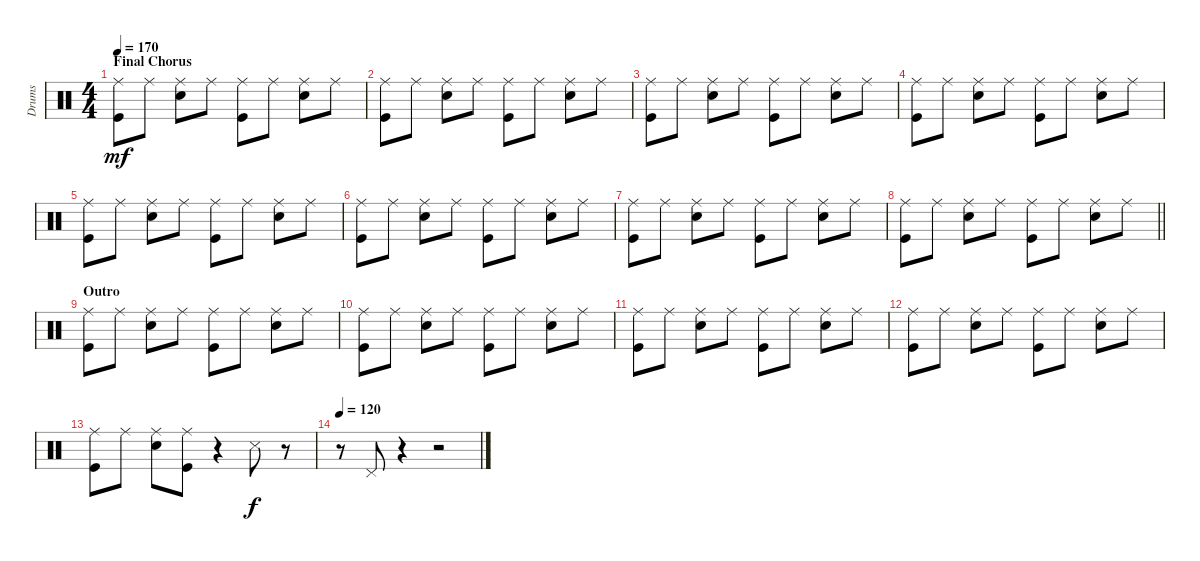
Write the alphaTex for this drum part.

\track ("Drums" "Drums") {instrument percussion}
\staff {score}
\articulation defaults
\ts (4 4)
\section ("" "Final Chorus")
\tempo 170
\clef neutral
\ks c
("Ride (middle)" "Kick (hit)").8{dy mf} "Ride (middle)".8 ("Ride (middle)" "Snare (hit) 2").8 "Ride (middle)".8 ("Ride (middle)" "Kick (hit)").8 "Ride (middle)".8 ("Ride (middle)" "Snare (hit) 2").8 "Ride (middle)".8 |
("Ride (middle)" "Kick (hit)").8 "Ride (middle)".8 ("Ride (middle)" "Snare (hit) 2").8 "Ride (middle)".8 ("Ride (middle)" "Kick (hit)").8 "Ride (middle)".8 ("Ride (middle)" "Snare (hit) 2").8 "Ride (middle)".8 |
("Ride (middle)" "Kick (hit)").8 "Ride (middle)".8 ("Ride (middle)" "Snare (hit) 2").8 "Ride (middle)".8 ("Ride (middle)" "Kick (hit)").8 "Ride (middle)".8 ("Ride (middle)" "Snare (hit) 2").8 "Ride (middle)".8 |
("Ride (middle)" "Kick (hit)").8 "Ride (middle)".8 ("Ride (middle)" "Snare (hit) 2").8 "Ride (middle)".8 ("Ride (middle)" "Kick (hit)").8 "Ride (middle)".8 ("Ride (middle)" "Snare (hit) 2").8 "Ride (middle)".8 |
("Ride (middle)" "Kick (hit)").8 "Ride (middle)".8 ("Ride (middle)" "Snare (hit) 2").8 "Ride (middle)".8 ("Ride (middle)" "Kick (hit)").8 "Ride (middle)".8 ("Ride (middle)" "Snare (hit) 2").8 "Ride (middle)".8 |
("Ride (middle)" "Kick (hit)").8 "Ride (middle)".8 ("Ride (middle)" "Snare (hit) 2").8 "Ride (middle)".8 ("Ride (middle)" "Kick (hit)").8 "Ride (middle)".8 ("Ride (middle)" "Snare (hit) 2").8 "Ride (middle)".8 |
("Ride (middle)" "Kick (hit)").8 "Ride (middle)".8 ("Ride (middle)" "Snare (hit) 2").8 "Ride (middle)".8 ("Ride (middle)" "Kick (hit)").8 "Ride (middle)".8 ("Ride (middle)" "Snare (hit) 2").8 "Ride (middle)".8 |
\barLineRight lightlight
("Ride (middle)" "Kick (hit)").8 "Ride (middle)".8 ("Ride (middle)" "Snare (hit) 2").8 "Ride (middle)".8 ("Ride (middle)" "Kick (hit)").8 "Ride (middle)".8 ("Ride (middle)" "Snare (hit) 2").8 "Ride (middle)".8 |
\section ("" "Outro")
("Ride (middle)" "Kick (hit)").8 "Ride (middle)".8 ("Ride (middle)" "Snare (hit) 2").8 "Ride (middle)".8 ("Ride (middle)" "Kick (hit)").8 "Ride (middle)".8 ("Ride (middle)" "Snare (hit) 2").8 "Ride (middle)".8 |
("Ride (middle)" "Kick (hit)").8 "Ride (middle)".8 ("Ride (middle)" "Snare (hit) 2").8 "Ride (middle)".8 ("Ride (middle)" "Kick (hit)").8 "Ride (middle)".8 ("Ride (middle)" "Snare (hit) 2").8 "Ride (middle)".8 |
("Ride (middle)" "Kick (hit)").8 "Ride (middle)".8 ("Ride (middle)" "Snare (hit) 2").8 "Ride (middle)".8 ("Ride (middle)" "Kick (hit)").8 "Ride (middle)".8 ("Ride (middle)" "Snare (hit) 2").8 "Ride (middle)".8 |
("Ride (middle)" "Kick (hit)").8 "Ride (middle)".8 ("Ride (middle)" "Snare (hit) 2").8 "Ride (middle)".8 ("Ride (middle)" "Kick (hit)").8 "Ride (middle)".8 ("Ride (middle)" "Snare (hit) 2").8 "Ride (middle)".8 |
("Ride (middle)" "Kick (hit)").8 "Ride (middle)".8 ("Ride (middle)" "Snare (hit) 2").8 ("Ride (middle)" "Kick (hit)").8 r.4 "Snare (side stick) 3".8{dy f} r.8 |
\tempo 120
r.8 "Pedal Hi-Hat (hit)".8 r.4 r.2
